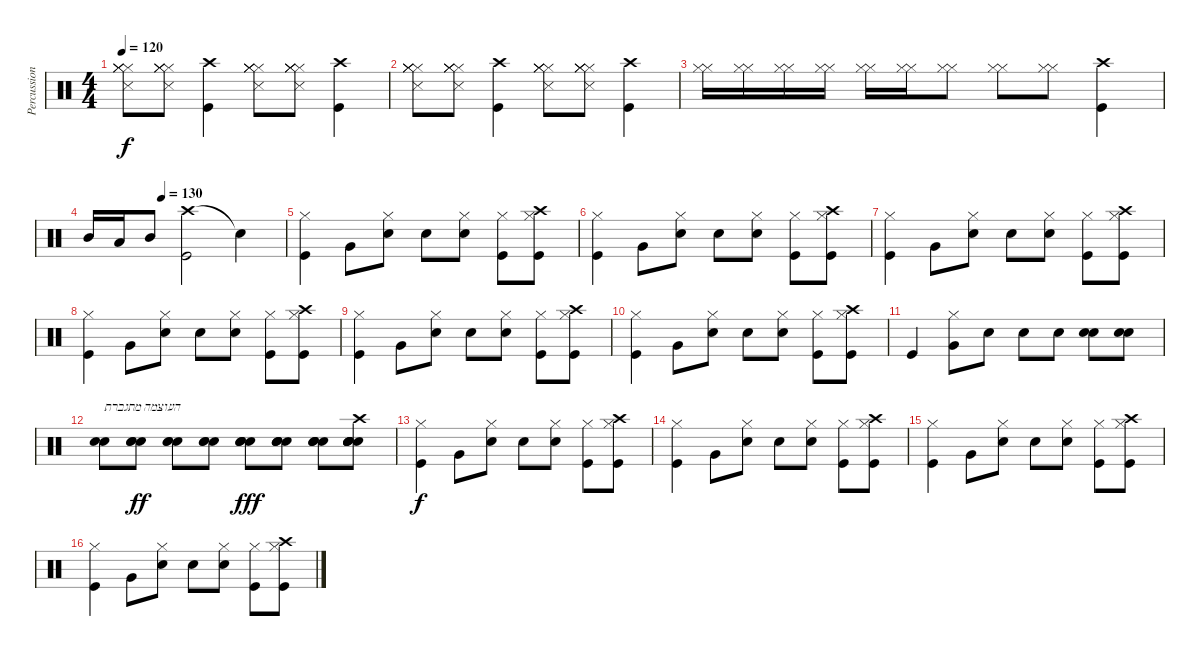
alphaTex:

\track ("Percussion" "Percussion") {instrument percussion}
\staff {score}
\articulation defaults
\ts (4 4)
\tempo 120
\clef neutral
\ks c
("Snare (side stick) 3" "Hi-Hat (closed)" "Hi-Hat (closed)" "Hi-Hat (closed)" "Hi-Hat (closed)").8{dy f} ("Snare (side stick) 3" "Hi-Hat (closed)" "Hi-Hat (closed)" "Hi-Hat (closed)" "Hi-Hat (closed)").8 ("Crash high (hit)" "Kick (hit)").4 ("Snare (side stick) 3" "Hi-Hat (closed)" "Hi-Hat (closed)" "Hi-Hat (closed)" "Hi-Hat (closed)").8 ("Snare (side stick) 3" "Hi-Hat (closed)" "Hi-Hat (closed)" "Hi-Hat (closed)" "Hi-Hat (closed)").8 ("Crash high (hit)" "Kick (hit)").4 |
("Snare (side stick) 3" "Hi-Hat (closed)" "Hi-Hat (closed)" "Hi-Hat (closed)" "Hi-Hat (closed)").8 ("Snare (side stick) 3" "Hi-Hat (closed)" "Hi-Hat (closed)" "Hi-Hat (closed)" "Hi-Hat (closed)").8 ("Crash high (hit)" "Kick (hit)").4 ("Snare (side stick) 3" "Hi-Hat (closed)" "Hi-Hat (closed)" "Hi-Hat (closed)" "Hi-Hat (closed)").8 ("Snare (side stick) 3" "Hi-Hat (closed)" "Hi-Hat (closed)" "Hi-Hat (closed)" "Hi-Hat (closed)").8 ("Crash high (hit)" "Kick (hit)").4 |
("Hi-Hat (closed)" "Hi-Hat (closed)").16 ("Hi-Hat (closed)" "Hi-Hat (closed)").16 ("Hi-Hat (closed)" "Hi-Hat (closed)").16 ("Hi-Hat (closed)" "Hi-Hat (closed)").16 ("Hi-Hat (closed)" "Hi-Hat (closed)").16 ("Hi-Hat (closed)" "Hi-Hat (closed)").16 ("Hi-Hat (closed)" "Hi-Hat (closed)").8 ("Hi-Hat (closed)" "Hi-Hat (closed)").8 ("Hi-Hat (closed)" "Hi-Hat (closed)").8 ("Crash high (hit)" "Kick (hit)").4 |
\tempo (130 0.375)
"Mid Tom (hit)".16 "Low Tom (hit)".16 "Mid Tom (hit)".8 ("Crash high (hit)" "Kick (hit)").2 "Snare (hit)"{t}.4 |
("Kick (hit)" "Hi-Hat (closed)").4 "Very Low Tom (hit)".8 ("Snare (hit) 2" "Hi-Hat (closed)").8 "Snare (hit) 2".8 ("Snare (hit) 2" "Hi-Hat (closed)").8 ("Kick (hit)" "Hi-Hat (closed)").8 ("Kick (hit)" "Crash high (hit)" "Hi-Hat (closed)").8 |
("Kick (hit)" "Hi-Hat (closed)").4 "Very Low Tom (hit)".8 ("Snare (hit) 2" "Hi-Hat (closed)").8 "Snare (hit) 2".8 ("Snare (hit) 2" "Hi-Hat (closed)").8 ("Kick (hit)" "Hi-Hat (closed)").8 ("Kick (hit)" "Crash high (hit)" "Hi-Hat (closed)").8 |
("Kick (hit)" "Hi-Hat (closed)").4 "Very Low Tom (hit)".8 ("Snare (hit) 2" "Hi-Hat (closed)").8 "Snare (hit) 2".8 ("Snare (hit) 2" "Hi-Hat (closed)").8 ("Kick (hit)" "Hi-Hat (closed)").8 ("Kick (hit)" "Crash high (hit)" "Hi-Hat (closed)").8 |
("Kick (hit)" "Hi-Hat (closed)").4 "Very Low Tom (hit)".8 ("Snare (hit) 2" "Hi-Hat (closed)").8 "Snare (hit) 2".8 ("Snare (hit) 2" "Hi-Hat (closed)").8 ("Kick (hit)" "Hi-Hat (closed)").8 ("Kick (hit)" "Crash high (hit)" "Hi-Hat (closed)").8 |
("Kick (hit)" "Hi-Hat (closed)").4 "Very Low Tom (hit)".8 ("Snare (hit) 2" "Hi-Hat (closed)").8 "Snare (hit) 2".8 ("Snare (hit) 2" "Hi-Hat (closed)").8 ("Kick (hit)" "Hi-Hat (closed)").8 ("Kick (hit)" "Crash high (hit)" "Hi-Hat (closed)").8 |
("Kick (hit)" "Hi-Hat (closed)").4 "Very Low Tom (hit)".8 ("Snare (hit) 2" "Hi-Hat (closed)").8 "Snare (hit) 2".8 ("Snare (hit) 2" "Hi-Hat (closed)").8 ("Kick (hit)" "Hi-Hat (closed)").8 ("Kick (hit)" "Crash high (hit)" "Hi-Hat (closed)").8 |
"Kick (hit)".4 ("Very Low Tom (hit)" "Hi-Hat (closed)").8 "Snare (hit) 2".8 "Snare (hit) 2".8 "Snare (hit) 2".8 ("Snare (hit) 2" "Snare (hit) 2").8 ("Snare (hit) 2" "Snare (hit) 2").8 |
("Snare (hit) 2" "Snare (hit) 2").8{txt "העוצמה מתגברת"} ("Snare (hit) 2" "Snare (hit) 2" "Snare (hit) 2").8{dy ff} ("Snare (hit) 2" "Snare (hit) 2" "Snare (hit) 2").8 ("Snare (hit) 2" "Snare (hit) 2" "Snare (hit) 2").8 ("Snare (hit) 2" "Snare (hit) 2" "Snare (hit) 2" "Snare (hit) 2").8{dy fff} ("Snare (hit) 2" "Snare (hit) 2" "Snare (hit) 2" "Snare (hit) 2").8 ("Snare (hit) 2" "Snare (hit) 2" "Snare (hit) 2" "Snare (hit) 2").8 ("Snare (hit) 2" "Snare (hit) 2" "Snare (hit) 2" "Snare (hit) 2" "Snare (hit) 2" "Crash high (hit)").8 |
("Kick (hit)" "Hi-Hat (closed)").4{dy f} "Very Low Tom (hit)".8 ("Snare (hit) 2" "Hi-Hat (closed)").8 "Snare (hit) 2".8 ("Snare (hit) 2" "Hi-Hat (closed)").8 ("Kick (hit)" "Hi-Hat (closed)").8 ("Kick (hit)" "Crash high (hit)" "Hi-Hat (closed)").8 |
("Kick (hit)" "Hi-Hat (closed)").4 "Very Low Tom (hit)".8 ("Snare (hit) 2" "Hi-Hat (closed)").8 "Snare (hit) 2".8 ("Snare (hit) 2" "Hi-Hat (closed)").8 ("Kick (hit)" "Hi-Hat (closed)").8 ("Kick (hit)" "Crash high (hit)" "Hi-Hat (closed)").8 |
("Kick (hit)" "Hi-Hat (closed)").4 "Very Low Tom (hit)".8 ("Snare (hit) 2" "Hi-Hat (closed)").8 "Snare (hit) 2".8 ("Snare (hit) 2" "Hi-Hat (closed)").8 ("Kick (hit)" "Hi-Hat (closed)").8 ("Kick (hit)" "Crash high (hit)" "Hi-Hat (closed)").8 |
("Kick (hit)" "Hi-Hat (closed)").4 "Very Low Tom (hit)".8 ("Snare (hit) 2" "Hi-Hat (closed)").8 "Snare (hit) 2".8 ("Snare (hit) 2" "Hi-Hat (closed)").8 ("Kick (hit)" "Hi-Hat (closed)").8 ("Kick (hit)" "Crash high (hit)" "Hi-Hat (closed)").8
